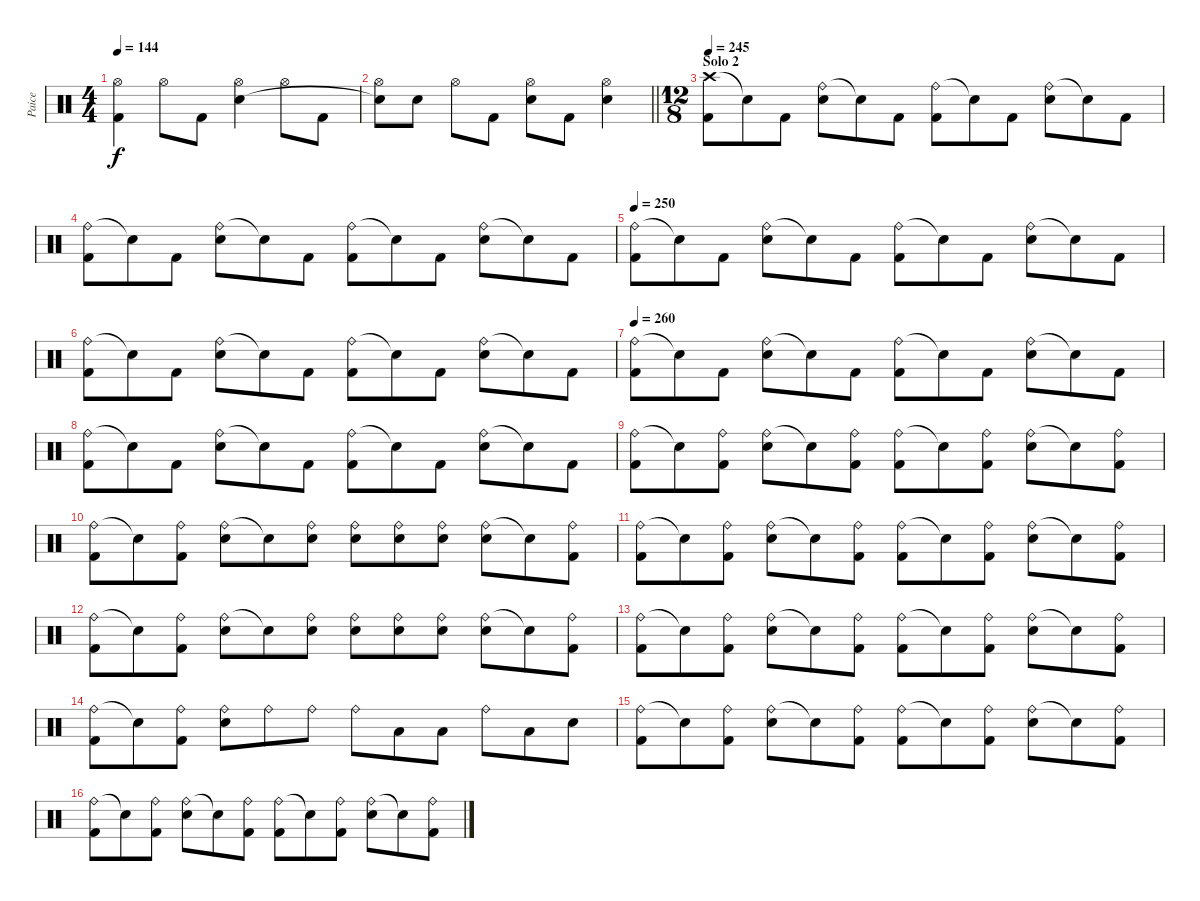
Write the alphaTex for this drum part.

\track ("Paice" "Paice") {instrument percussion}
\staff {score}
\articulation defaults
\ts (4 4)
\tempo 144
\clef neutral
\ks c
("Hi-Hat (open)" "Kick (hit) 2").4{dy f} "Hi-Hat (open)".8 "Kick (hit) 2".8 ("Hi-Hat (open)" "Electric Snare (hit)").4 "Hi-Hat (open)".8 "Kick (hit) 2".8 |
\barLineRight lightlight
("Hi-Hat (open)" "Snare (hit)"{t}).8 "Electric Snare (hit)".8 "Hi-Hat (open)".8 "Kick (hit) 2".8 ("Hi-Hat (open)" "Electric Snare (hit)").8 "Kick (hit) 2".8 ("Hi-Hat (open)" "Electric Snare (hit)").4 |
\ts (12 8)
\section ("" "Solo 2")
\tempo 245
("Crash high (hit)" "Kick (hit) 2").8 "Snare (hit)"{t}.8 "Kick (hit) 2".8 ("Ride (bell)" "Electric Snare (hit)").8 "Snare (hit)"{t}.8 "Kick (hit) 2".8 ("Ride (bell)" "Kick (hit) 2").8 "Snare (hit)"{t}.8 "Kick (hit) 2".8 ("Ride (bell)" "Electric Snare (hit)").8 "Snare (hit)"{t}.8 "Kick (hit) 2".8 |
("Ride (bell)" "Kick (hit) 2").8 "Snare (hit)"{t}.8 "Kick (hit) 2".8 ("Ride (bell)" "Electric Snare (hit)").8 "Snare (hit)"{t}.8 "Kick (hit) 2".8 ("Ride (bell)" "Kick (hit) 2").8 "Snare (hit)"{t}.8 "Kick (hit) 2".8 ("Ride (bell)" "Electric Snare (hit)").8 "Snare (hit)"{t}.8 "Kick (hit) 2".8 |
\tempo 250
("Ride (bell)" "Kick (hit) 2").8 "Snare (hit)"{t}.8 "Kick (hit) 2".8 ("Ride (bell)" "Electric Snare (hit)").8 "Snare (hit)"{t}.8 "Kick (hit) 2".8 ("Ride (bell)" "Kick (hit) 2").8 "Snare (hit)"{t}.8 "Kick (hit) 2".8 ("Ride (bell)" "Electric Snare (hit)").8 "Snare (hit)"{t}.8 "Kick (hit) 2".8 |
("Ride (bell)" "Kick (hit) 2").8 "Snare (hit)"{t}.8 "Kick (hit) 2".8 ("Ride (bell)" "Electric Snare (hit)").8 "Snare (hit)"{t}.8 "Kick (hit) 2".8 ("Ride (bell)" "Kick (hit) 2").8 "Snare (hit)"{t}.8 "Kick (hit) 2".8 ("Ride (bell)" "Electric Snare (hit)").8 "Snare (hit)"{t}.8 "Kick (hit) 2".8 |
\tempo 260
("Ride (bell)" "Kick (hit) 2").8 "Snare (hit)"{t}.8 "Kick (hit) 2".8 ("Ride (bell)" "Electric Snare (hit)").8 "Snare (hit)"{t}.8 "Kick (hit) 2".8 ("Ride (bell)" "Kick (hit) 2").8 "Snare (hit)"{t}.8 "Kick (hit) 2".8 ("Ride (bell)" "Electric Snare (hit)").8 "Snare (hit)"{t}.8 "Kick (hit) 2".8 |
("Ride (bell)" "Kick (hit) 2").8 "Snare (hit)"{t}.8 "Kick (hit) 2".8 ("Ride (bell)" "Electric Snare (hit)").8 "Snare (hit)"{t}.8 "Kick (hit) 2".8 ("Ride (bell)" "Kick (hit) 2").8 "Snare (hit)"{t}.8 "Kick (hit) 2".8 ("Ride (bell)" "Electric Snare (hit)").8 "Snare (hit)"{t}.8 "Kick (hit) 2".8 |
("Ride (bell)" "Kick (hit) 2").8 "Snare (hit)"{t}.8 ("Ride (bell)" "Kick (hit) 2").8 ("Ride (bell)" "Electric Snare (hit)").8 "Snare (hit)"{t}.8 ("Ride (bell)" "Kick (hit) 2").8 ("Ride (bell)" "Kick (hit) 2").8 "Snare (hit)"{t}.8 ("Ride (bell)" "Kick (hit) 2").8 ("Ride (bell)" "Electric Snare (hit)").8 "Snare (hit)"{t}.8 ("Ride (bell)" "Kick (hit) 2").8 |
("Ride (bell)" "Kick (hit) 2").8 "Snare (hit)"{t}.8 ("Ride (bell)" "Kick (hit) 2").8 ("Ride (bell)" "Electric Snare (hit)").8 "Snare (hit)"{t}.8 ("Ride (bell)" "Electric Snare (hit)").8 ("Ride (bell)" "Electric Snare (hit)").8 ("Ride (bell)" "Electric Snare (hit)").8 ("Ride (bell)" "Electric Snare (hit)").8 ("Ride (bell)" "Electric Snare (hit)").8 "Snare (hit)"{t}.8 ("Ride (bell)" "Kick (hit) 2").8 |
("Ride (bell)" "Kick (hit) 2").8 "Snare (hit)"{t}.8 ("Ride (bell)" "Kick (hit) 2").8 ("Ride (bell)" "Electric Snare (hit)").8 "Snare (hit)"{t}.8 ("Ride (bell)" "Kick (hit) 2").8 ("Ride (bell)" "Kick (hit) 2").8 "Snare (hit)"{t}.8 ("Ride (bell)" "Kick (hit) 2").8 ("Ride (bell)" "Electric Snare (hit)").8 "Snare (hit)"{t}.8 ("Ride (bell)" "Kick (hit) 2").8 |
("Ride (bell)" "Kick (hit) 2").8 "Snare (hit)"{t}.8 ("Ride (bell)" "Kick (hit) 2").8 ("Ride (bell)" "Electric Snare (hit)").8 "Snare (hit)"{t}.8 ("Ride (bell)" "Electric Snare (hit)").8 ("Ride (bell)" "Electric Snare (hit)").8 ("Ride (bell)" "Electric Snare (hit)").8 ("Ride (bell)" "Electric Snare (hit)").8 ("Ride (bell)" "Electric Snare (hit)").8 "Snare (hit)"{t}.8 ("Ride (bell)" "Kick (hit) 2").8 |
("Ride (bell)" "Kick (hit) 2").8 "Snare (hit)"{t}.8 ("Ride (bell)" "Kick (hit) 2").8 ("Ride (bell)" "Electric Snare (hit)").8 "Snare (hit)"{t}.8 ("Ride (bell)" "Kick (hit) 2").8 ("Ride (bell)" "Kick (hit) 2").8 "Snare (hit)"{t}.8 ("Ride (bell)" "Kick (hit) 2").8 ("Ride (bell)" "Electric Snare (hit)").8 "Snare (hit)"{t}.8 ("Ride (bell)" "Kick (hit) 2").8 |
("Ride (bell)" "Kick (hit) 2").8 "Snare (hit)"{t}.8 ("Ride (bell)" "Kick (hit) 2").8 ("Ride (bell)" "Electric Snare (hit)").8 "Ride (bell)".8 "Ride (bell)".8 "Ride (bell)".8 "Low Tom (hit)".8 "Low Tom (hit)".8 "Ride (bell)".8 "Low Tom (hit)".8 "Electric Snare (hit)".8 |
("Ride (bell)" "Kick (hit) 2").8 "Snare (hit)"{t}.8 ("Ride (bell)" "Kick (hit) 2").8 ("Ride (bell)" "Electric Snare (hit)").8 "Snare (hit)"{t}.8 ("Ride (bell)" "Kick (hit) 2").8 ("Ride (bell)" "Kick (hit) 2").8 "Snare (hit)"{t}.8 ("Ride (bell)" "Kick (hit) 2").8 ("Ride (bell)" "Electric Snare (hit)").8 "Snare (hit)"{t}.8 ("Ride (bell)" "Kick (hit) 2").8 |
("Ride (bell)" "Kick (hit) 2").8 "Snare (hit)"{t}.8 ("Ride (bell)" "Kick (hit) 2").8 ("Ride (bell)" "Electric Snare (hit)").8 "Snare (hit)"{t}.8 ("Ride (bell)" "Kick (hit) 2").8 ("Ride (bell)" "Kick (hit) 2").8 "Snare (hit)"{t}.8 ("Ride (bell)" "Kick (hit) 2").8 ("Ride (bell)" "Electric Snare (hit)").8 "Snare (hit)"{t}.8 ("Ride (bell)" "Kick (hit) 2").8
